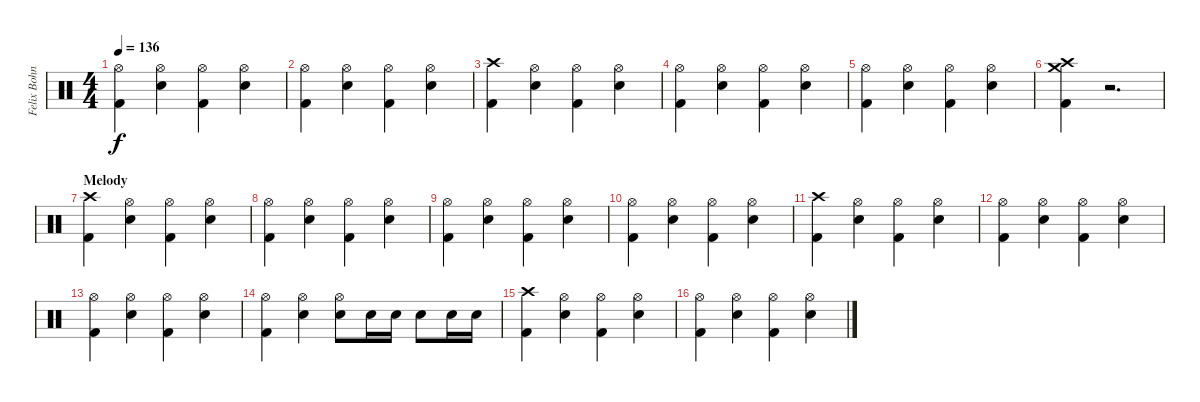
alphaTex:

\track ("Felix Bohnke" "Felix Bohn") {instrument percussion}
\staff {score}
\articulation defaults
\ts (4 4)
\tempo 136
\clef neutral
\ks c
("Hi-Hat (open)" "Kick (hit) 2").4{dy f} ("Hi-Hat (open)" "Snare (hit) 2").4 ("Hi-Hat (open)" "Kick (hit) 2").4 ("Hi-Hat (open)" "Snare (hit) 2").4 |
("Hi-Hat (open)" "Kick (hit) 2").4 ("Hi-Hat (open)" "Snare (hit) 2").4 ("Hi-Hat (open)" "Kick (hit) 2").4 ("Hi-Hat (open)" "Snare (hit) 2").4 |
("Crash high (hit)" "Kick (hit) 2").4 ("Hi-Hat (open)" "Snare (hit) 2").4 ("Hi-Hat (open)" "Kick (hit) 2").4 ("Hi-Hat (open)" "Snare (hit) 2").4 |
("Hi-Hat (open)" "Kick (hit) 2").4 ("Hi-Hat (open)" "Snare (hit) 2").4 ("Hi-Hat (open)" "Kick (hit) 2").4 ("Hi-Hat (open)" "Snare (hit) 2").4 |
("Hi-Hat (open)" "Kick (hit) 2").4 ("Hi-Hat (open)" "Snare (hit) 2").4 ("Hi-Hat (open)" "Kick (hit) 2").4 ("Hi-Hat (open)" "Snare (hit) 2").4 |
("Crash high (hit)" "Crash medium (hit)" "Kick (hit) 2").4 r.2{d} |
\section ("" "Melody")
("Crash high (hit)" "Kick (hit) 2").4 ("Hi-Hat (open)" "Snare (hit) 2").4 ("Hi-Hat (open)" "Kick (hit) 2").4 ("Hi-Hat (open)" "Snare (hit) 2").4 |
("Hi-Hat (open)" "Kick (hit) 2").4 ("Hi-Hat (open)" "Snare (hit) 2").4 ("Hi-Hat (open)" "Kick (hit) 2").4 ("Hi-Hat (open)" "Snare (hit) 2").4 |
("Hi-Hat (open)" "Kick (hit) 2").4 ("Hi-Hat (open)" "Snare (hit) 2").4 ("Hi-Hat (open)" "Kick (hit) 2").4 ("Hi-Hat (open)" "Snare (hit) 2").4 |
("Hi-Hat (open)" "Kick (hit) 2").4 ("Hi-Hat (open)" "Snare (hit) 2").4 ("Hi-Hat (open)" "Kick (hit) 2").4 ("Hi-Hat (open)" "Snare (hit) 2").4 |
("Crash high (hit)" "Kick (hit) 2").4 ("Hi-Hat (open)" "Snare (hit) 2").4 ("Hi-Hat (open)" "Kick (hit) 2").4 ("Hi-Hat (open)" "Snare (hit) 2").4 |
("Hi-Hat (open)" "Kick (hit) 2").4 ("Hi-Hat (open)" "Snare (hit) 2").4 ("Hi-Hat (open)" "Kick (hit) 2").4 ("Hi-Hat (open)" "Snare (hit) 2").4 |
("Hi-Hat (open)" "Kick (hit) 2").4 ("Hi-Hat (open)" "Snare (hit) 2").4 ("Hi-Hat (open)" "Kick (hit) 2").4 ("Hi-Hat (open)" "Snare (hit) 2").4 |
("Hi-Hat (open)" "Kick (hit) 2").4 ("Hi-Hat (open)" "Snare (hit) 2").4 ("Hi-Hat (open)" "Snare (hit) 2").8 "Snare (hit) 2".16 "Snare (hit) 2".16 "Snare (hit) 2".8 "Snare (hit) 2".16 "Snare (hit) 2".16 |
("Crash high (hit)" "Kick (hit) 2").4 ("Hi-Hat (open)" "Snare (hit) 2").4 ("Hi-Hat (open)" "Kick (hit) 2").4 ("Hi-Hat (open)" "Snare (hit) 2").4 |
("Hi-Hat (open)" "Kick (hit) 2").4 ("Hi-Hat (open)" "Snare (hit) 2").4 ("Hi-Hat (open)" "Kick (hit) 2").4 ("Hi-Hat (open)" "Snare (hit) 2").4
